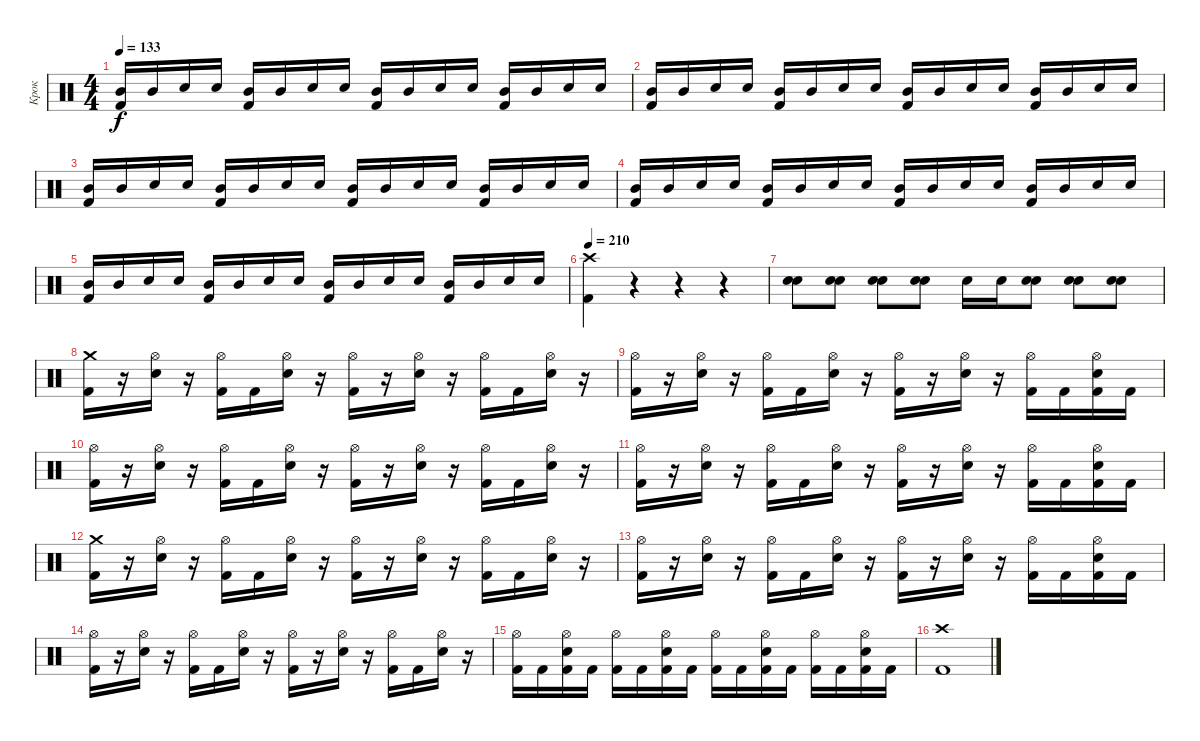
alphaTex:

\track ("Крок" "Крок") {instrument percussion}
\staff {score}
\articulation defaults
\ts (4 4)
\tempo 133
\clef neutral
\ks c
("Kick (hit) 2" "Mid Tom (hit)").16{dy f} "Mid Tom (hit)".16 "Electric Snare (hit)".16 "Electric Snare (hit)".16 ("Kick (hit) 2" "Mid Tom (hit)").16 "Mid Tom (hit)".16 "Electric Snare (hit)".16 "Electric Snare (hit)".16 ("Kick (hit) 2" "Mid Tom (hit)").16 "Mid Tom (hit)".16 "Electric Snare (hit)".16 "Electric Snare (hit)".16 ("Kick (hit) 2" "Mid Tom (hit)").16 "Mid Tom (hit)".16 "Electric Snare (hit)".16 "Electric Snare (hit)".16 |
("Kick (hit) 2" "Mid Tom (hit)").16 "Mid Tom (hit)".16 "Electric Snare (hit)".16 "Electric Snare (hit)".16 ("Kick (hit) 2" "Mid Tom (hit)").16 "Mid Tom (hit)".16 "Electric Snare (hit)".16 "Electric Snare (hit)".16 ("Kick (hit) 2" "Mid Tom (hit)").16 "Mid Tom (hit)".16 "Electric Snare (hit)".16 "Electric Snare (hit)".16 ("Kick (hit) 2" "Mid Tom (hit)").16 "Mid Tom (hit)".16 "Electric Snare (hit)".16 "Electric Snare (hit)".16 |
("Kick (hit) 2" "Mid Tom (hit)").16 "Mid Tom (hit)".16 "Electric Snare (hit)".16 "Electric Snare (hit)".16 ("Kick (hit) 2" "Mid Tom (hit)").16 "Mid Tom (hit)".16 "Electric Snare (hit)".16 "Electric Snare (hit)".16 ("Kick (hit) 2" "Mid Tom (hit)").16 "Mid Tom (hit)".16 "Electric Snare (hit)".16 "Electric Snare (hit)".16 ("Kick (hit) 2" "Mid Tom (hit)").16 "Mid Tom (hit)".16 "Electric Snare (hit)".16 "Electric Snare (hit)".16 |
("Kick (hit) 2" "Mid Tom (hit)").16 "Mid Tom (hit)".16 "Electric Snare (hit)".16 "Electric Snare (hit)".16 ("Kick (hit) 2" "Mid Tom (hit)").16 "Mid Tom (hit)".16 "Electric Snare (hit)".16 "Electric Snare (hit)".16 ("Kick (hit) 2" "Mid Tom (hit)").16 "Mid Tom (hit)".16 "Electric Snare (hit)".16 "Electric Snare (hit)".16 ("Kick (hit) 2" "Mid Tom (hit)").16 "Mid Tom (hit)".16 "Electric Snare (hit)".16 "Electric Snare (hit)".16 |
("Kick (hit) 2" "Mid Tom (hit)").16 "Mid Tom (hit)".16 "Electric Snare (hit)".16 "Electric Snare (hit)".16 ("Kick (hit) 2" "Mid Tom (hit)").16 "Mid Tom (hit)".16 "Electric Snare (hit)".16 "Electric Snare (hit)".16 ("Kick (hit) 2" "Mid Tom (hit)").16 "Mid Tom (hit)".16 "Electric Snare (hit)".16 "Electric Snare (hit)".16 ("Kick (hit) 2" "Mid Tom (hit)").16 "Mid Tom (hit)".16 "Electric Snare (hit)".16 "Electric Snare (hit)".16 |
\tempo 210
("Crash high (hit)" "Kick (hit) 2").4 r.4 r.4 r.4 |
("Electric Snare (hit)" "Electric Snare (hit)").8 ("Electric Snare (hit)" "Electric Snare (hit)").8 ("Electric Snare (hit)" "Electric Snare (hit)").8 ("Electric Snare (hit)" "Electric Snare (hit)").8 "Electric Snare (hit)".16 "Electric Snare (hit)".16 ("Electric Snare (hit)" "Electric Snare (hit)").8 ("Electric Snare (hit)" "Electric Snare (hit)").8 ("Electric Snare (hit)" "Electric Snare (hit)").8 |
("Crash medium (hit)" "Kick (hit) 2").16 r.16 ("Hi-Hat (open)" "Electric Snare (hit)").16 r.16 ("Hi-Hat (open)" "Kick (hit) 2").16 "Kick (hit) 2".16 ("Hi-Hat (open)" "Electric Snare (hit)").16 r.16 ("Hi-Hat (open)" "Kick (hit) 2").16 r.16 ("Hi-Hat (open)" "Electric Snare (hit)").16 r.16 ("Hi-Hat (open)" "Kick (hit) 2").16 "Kick (hit) 2".16 ("Hi-Hat (open)" "Electric Snare (hit)").16 r.16 |
("Hi-Hat (open)" "Kick (hit) 2").16 r.16 ("Hi-Hat (open)" "Electric Snare (hit)").16 r.16 ("Hi-Hat (open)" "Kick (hit) 2").16 "Kick (hit) 2".16 ("Hi-Hat (open)" "Electric Snare (hit)").16 r.16 ("Hi-Hat (open)" "Kick (hit) 2").16 r.16 ("Hi-Hat (open)" "Electric Snare (hit)").16 r.16 ("Hi-Hat (open)" "Kick (hit) 2").16 "Kick (hit) 2".16 ("Hi-Hat (open)" "Electric Snare (hit)" "Kick (hit) 2").16 "Kick (hit) 2".16 |
("Hi-Hat (open)" "Kick (hit) 2").16 r.16 ("Hi-Hat (open)" "Electric Snare (hit)").16 r.16 ("Hi-Hat (open)" "Kick (hit) 2").16 "Kick (hit) 2".16 ("Hi-Hat (open)" "Electric Snare (hit)").16 r.16 ("Hi-Hat (open)" "Kick (hit) 2").16 r.16 ("Hi-Hat (open)" "Electric Snare (hit)").16 r.16 ("Hi-Hat (open)" "Kick (hit) 2").16 "Kick (hit) 2".16 ("Hi-Hat (open)" "Electric Snare (hit)").16 r.16 |
("Hi-Hat (open)" "Kick (hit) 2").16 r.16 ("Hi-Hat (open)" "Electric Snare (hit)").16 r.16 ("Hi-Hat (open)" "Kick (hit) 2").16 "Kick (hit) 2".16 ("Hi-Hat (open)" "Electric Snare (hit)").16 r.16 ("Hi-Hat (open)" "Kick (hit) 2").16 r.16 ("Hi-Hat (open)" "Electric Snare (hit)").16 r.16 ("Hi-Hat (open)" "Kick (hit) 2").16 "Kick (hit) 2".16 ("Hi-Hat (open)" "Electric Snare (hit)" "Kick (hit) 2").16 "Kick (hit) 2".16 |
("Crash medium (hit)" "Kick (hit) 2").16 r.16 ("Hi-Hat (open)" "Electric Snare (hit)").16 r.16 ("Hi-Hat (open)" "Kick (hit) 2").16 "Kick (hit) 2".16 ("Hi-Hat (open)" "Electric Snare (hit)").16 r.16 ("Hi-Hat (open)" "Kick (hit) 2").16 r.16 ("Hi-Hat (open)" "Electric Snare (hit)").16 r.16 ("Hi-Hat (open)" "Kick (hit) 2").16 "Kick (hit) 2".16 ("Hi-Hat (open)" "Electric Snare (hit)").16 r.16 |
("Hi-Hat (open)" "Kick (hit) 2").16 r.16 ("Hi-Hat (open)" "Electric Snare (hit)").16 r.16 ("Hi-Hat (open)" "Kick (hit) 2").16 "Kick (hit) 2".16 ("Hi-Hat (open)" "Electric Snare (hit)").16 r.16 ("Hi-Hat (open)" "Kick (hit) 2").16 r.16 ("Hi-Hat (open)" "Electric Snare (hit)").16 r.16 ("Hi-Hat (open)" "Kick (hit) 2").16 "Kick (hit) 2".16 ("Hi-Hat (open)" "Electric Snare (hit)" "Kick (hit) 2").16 "Kick (hit) 2".16 |
("Hi-Hat (open)" "Kick (hit) 2").16 r.16 ("Hi-Hat (open)" "Electric Snare (hit)").16 r.16 ("Hi-Hat (open)" "Kick (hit) 2").16 "Kick (hit) 2".16 ("Hi-Hat (open)" "Electric Snare (hit)").16 r.16 ("Hi-Hat (open)" "Kick (hit) 2").16 r.16 ("Hi-Hat (open)" "Electric Snare (hit)").16 r.16 ("Hi-Hat (open)" "Kick (hit) 2").16 "Kick (hit) 2".16 ("Hi-Hat (open)" "Electric Snare (hit)").16 r.16 |
("Hi-Hat (open)" "Kick (hit) 2").16 "Kick (hit) 2".16 ("Hi-Hat (open)" "Electric Snare (hit)" "Kick (hit) 2").16 "Kick (hit) 2".16 ("Hi-Hat (open)" "Kick (hit) 2").16 "Kick (hit) 2".16 ("Hi-Hat (open)" "Electric Snare (hit)" "Kick (hit) 2").16 "Kick (hit) 2".16 ("Hi-Hat (open)" "Kick (hit) 2").16 "Kick (hit) 2".16 ("Hi-Hat (open)" "Electric Snare (hit)" "Kick (hit) 2").16 "Kick (hit) 2".16 ("Hi-Hat (open)" "Kick (hit) 2").16 "Kick (hit) 2".16 ("Hi-Hat (open)" "Electric Snare (hit)" "Kick (hit) 2").16 "Kick (hit) 2".16 |
("Crash high (hit)" "Kick (hit) 2").1
